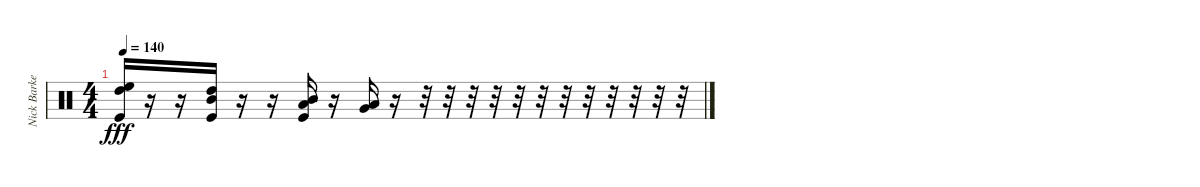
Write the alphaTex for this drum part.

\track ("Nick Barker" "Nick Barke") {instrument percussion}
\staff {score}
\articulation defaults
\ts (4 4)
\tempo 140
\clef neutral
\ks c
("High Floor Tom (hit)" "High Tom (hit)" "Kick (hit)").16{dy fff} r.16 r.16 ("High Tom (hit)" "Mid Tom (hit)" "Kick (hit)").16 r.16 r.16 ("Mid Tom (hit)" "Low Tom (hit)" "Kick (hit)").16 r.16 ("Low Floor Tom (hit)" "Very Low Tom (hit)").16 r.16 r.32 r.32 r.32 r.32 r.32 r.32 r.32 r.32 r.32 r.32 r.32 r.32
